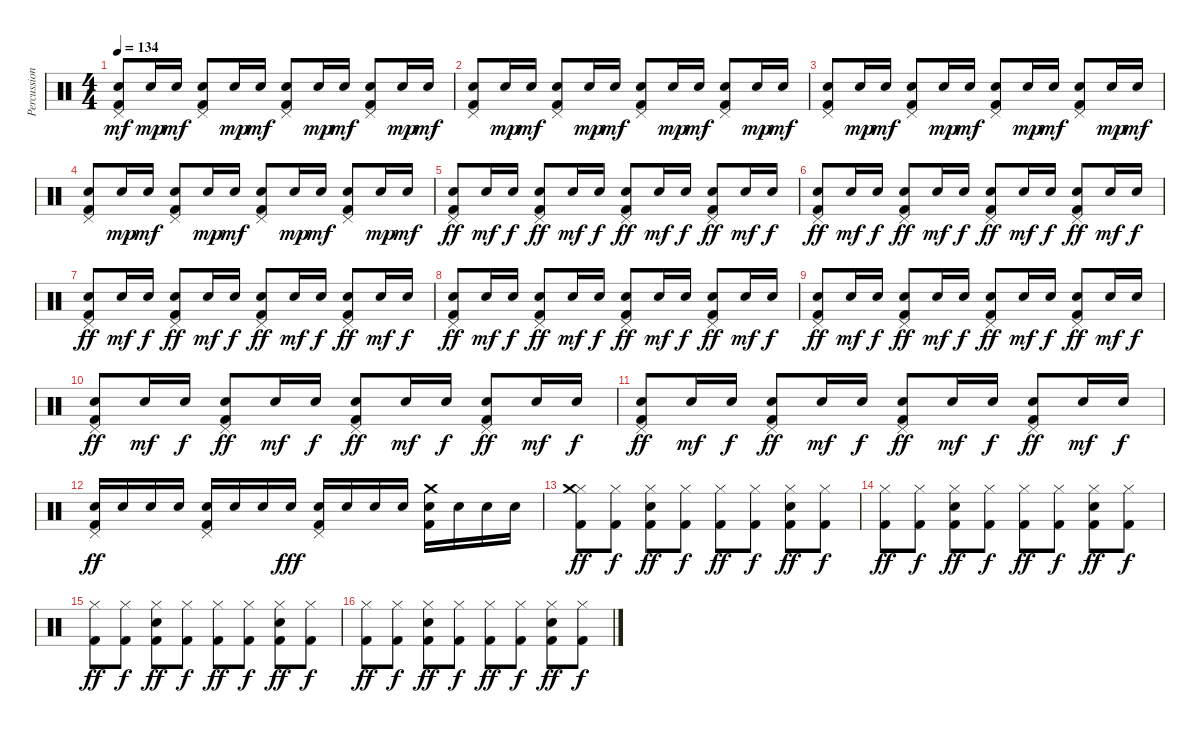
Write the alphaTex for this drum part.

\track ("Percussion" "Percussion") {instrument percussion}
\staff {score}
\articulation defaults
\ts (4 4)
\tempo 134
\clef neutral
\ks c
("Kick (hit) 2" "Pedal Hi-Hat (hit)" "Electric Snare (hit)").8{dy mf} "Electric Snare (hit)".16{dy mp} "Electric Snare (hit)".16{dy mf} ("Kick (hit) 2" "Pedal Hi-Hat (hit)" "Electric Snare (hit)").8 "Electric Snare (hit)".16{dy mp} "Electric Snare (hit)".16{dy mf} ("Kick (hit) 2" "Pedal Hi-Hat (hit)" "Electric Snare (hit)").8 "Electric Snare (hit)".16{dy mp} "Electric Snare (hit)".16{dy mf} ("Kick (hit) 2" "Pedal Hi-Hat (hit)" "Electric Snare (hit)").8 "Electric Snare (hit)".16{dy mp} "Electric Snare (hit)".16{dy mf} |
("Kick (hit) 2" "Pedal Hi-Hat (hit)" "Electric Snare (hit)").8 "Electric Snare (hit)".16{dy mp} "Electric Snare (hit)".16{dy mf} ("Kick (hit) 2" "Pedal Hi-Hat (hit)" "Electric Snare (hit)").8 "Electric Snare (hit)".16{dy mp} "Electric Snare (hit)".16{dy mf} ("Kick (hit) 2" "Pedal Hi-Hat (hit)" "Electric Snare (hit)").8 "Electric Snare (hit)".16{dy mp} "Electric Snare (hit)".16{dy mf} ("Kick (hit) 2" "Pedal Hi-Hat (hit)" "Electric Snare (hit)").8 "Electric Snare (hit)".16{dy mp} "Electric Snare (hit)".16{dy mf} |
("Kick (hit) 2" "Pedal Hi-Hat (hit)" "Electric Snare (hit)").8 "Electric Snare (hit)".16{dy mp} "Electric Snare (hit)".16{dy mf} ("Kick (hit) 2" "Pedal Hi-Hat (hit)" "Electric Snare (hit)").8 "Electric Snare (hit)".16{dy mp} "Electric Snare (hit)".16{dy mf} ("Kick (hit) 2" "Pedal Hi-Hat (hit)" "Electric Snare (hit)").8 "Electric Snare (hit)".16{dy mp} "Electric Snare (hit)".16{dy mf} ("Kick (hit) 2" "Pedal Hi-Hat (hit)" "Electric Snare (hit)").8 "Electric Snare (hit)".16{dy mp} "Electric Snare (hit)".16{dy mf} |
("Kick (hit) 2" "Pedal Hi-Hat (hit)" "Electric Snare (hit)").8 "Electric Snare (hit)".16{dy mp} "Electric Snare (hit)".16{dy mf} ("Kick (hit) 2" "Pedal Hi-Hat (hit)" "Electric Snare (hit)").8 "Electric Snare (hit)".16{dy mp} "Electric Snare (hit)".16{dy mf} ("Kick (hit) 2" "Pedal Hi-Hat (hit)" "Electric Snare (hit)").8 "Electric Snare (hit)".16{dy mp} "Electric Snare (hit)".16{dy mf} ("Kick (hit) 2" "Pedal Hi-Hat (hit)" "Electric Snare (hit)").8 "Electric Snare (hit)".16{dy mp} "Electric Snare (hit)".16{dy mf} |
("Kick (hit) 2" "Pedal Hi-Hat (hit)" "Electric Snare (hit)").8{dy ff} "Electric Snare (hit)".16{dy mf} "Electric Snare (hit)".16{dy f} ("Kick (hit) 2" "Pedal Hi-Hat (hit)" "Electric Snare (hit)").8{dy ff} "Electric Snare (hit)".16{dy mf} "Electric Snare (hit)".16{dy f} ("Kick (hit) 2" "Pedal Hi-Hat (hit)" "Electric Snare (hit)").8{dy ff} "Electric Snare (hit)".16{dy mf} "Electric Snare (hit)".16{dy f} ("Kick (hit) 2" "Pedal Hi-Hat (hit)" "Electric Snare (hit)").8{dy ff} "Electric Snare (hit)".16{dy mf} "Electric Snare (hit)".16{dy f} |
("Kick (hit) 2" "Pedal Hi-Hat (hit)" "Electric Snare (hit)").8{dy ff} "Electric Snare (hit)".16{dy mf} "Electric Snare (hit)".16{dy f} ("Kick (hit) 2" "Pedal Hi-Hat (hit)" "Electric Snare (hit)").8{dy ff} "Electric Snare (hit)".16{dy mf} "Electric Snare (hit)".16{dy f} ("Kick (hit) 2" "Pedal Hi-Hat (hit)" "Electric Snare (hit)").8{dy ff} "Electric Snare (hit)".16{dy mf} "Electric Snare (hit)".16{dy f} ("Kick (hit) 2" "Pedal Hi-Hat (hit)" "Electric Snare (hit)").8{dy ff} "Electric Snare (hit)".16{dy mf} "Electric Snare (hit)".16{dy f} |
("Kick (hit) 2" "Pedal Hi-Hat (hit)" "Electric Snare (hit)").8{dy ff} "Electric Snare (hit)".16{dy mf} "Electric Snare (hit)".16{dy f} ("Kick (hit) 2" "Pedal Hi-Hat (hit)" "Electric Snare (hit)").8{dy ff} "Electric Snare (hit)".16{dy mf} "Electric Snare (hit)".16{dy f} ("Kick (hit) 2" "Pedal Hi-Hat (hit)" "Electric Snare (hit)").8{dy ff} "Electric Snare (hit)".16{dy mf} "Electric Snare (hit)".16{dy f} ("Kick (hit) 2" "Pedal Hi-Hat (hit)" "Electric Snare (hit)").8{dy ff} "Electric Snare (hit)".16{dy mf} "Electric Snare (hit)".16{dy f} |
("Kick (hit) 2" "Pedal Hi-Hat (hit)" "Electric Snare (hit)").8{dy ff} "Electric Snare (hit)".16{dy mf} "Electric Snare (hit)".16{dy f} ("Kick (hit) 2" "Pedal Hi-Hat (hit)" "Electric Snare (hit)").8{dy ff} "Electric Snare (hit)".16{dy mf} "Electric Snare (hit)".16{dy f} ("Kick (hit) 2" "Pedal Hi-Hat (hit)" "Electric Snare (hit)").8{dy ff} "Electric Snare (hit)".16{dy mf} "Electric Snare (hit)".16{dy f} ("Kick (hit) 2" "Pedal Hi-Hat (hit)" "Electric Snare (hit)").8{dy ff} "Electric Snare (hit)".16{dy mf} "Electric Snare (hit)".16{dy f} |
("Kick (hit) 2" "Pedal Hi-Hat (hit)" "Electric Snare (hit)").8{dy ff} "Electric Snare (hit)".16{dy mf} "Electric Snare (hit)".16{dy f} ("Kick (hit) 2" "Pedal Hi-Hat (hit)" "Electric Snare (hit)").8{dy ff} "Electric Snare (hit)".16{dy mf} "Electric Snare (hit)".16{dy f} ("Kick (hit) 2" "Pedal Hi-Hat (hit)" "Electric Snare (hit)").8{dy ff} "Electric Snare (hit)".16{dy mf} "Electric Snare (hit)".16{dy f} ("Kick (hit) 2" "Pedal Hi-Hat (hit)" "Electric Snare (hit)").8{dy ff} "Electric Snare (hit)".16{dy mf} "Electric Snare (hit)".16{dy f} |
("Kick (hit) 2" "Pedal Hi-Hat (hit)" "Electric Snare (hit)").8{dy ff} "Electric Snare (hit)".16{dy mf} "Electric Snare (hit)".16{dy f} ("Kick (hit) 2" "Pedal Hi-Hat (hit)" "Electric Snare (hit)").8{dy ff} "Electric Snare (hit)".16{dy mf} "Electric Snare (hit)".16{dy f} ("Kick (hit) 2" "Pedal Hi-Hat (hit)" "Electric Snare (hit)").8{dy ff} "Electric Snare (hit)".16{dy mf} "Electric Snare (hit)".16{dy f} ("Kick (hit) 2" "Pedal Hi-Hat (hit)" "Electric Snare (hit)").8{dy ff} "Electric Snare (hit)".16{dy mf} "Electric Snare (hit)".16{dy f} |
("Kick (hit) 2" "Pedal Hi-Hat (hit)" "Electric Snare (hit)").8{dy ff} "Electric Snare (hit)".16{dy mf} "Electric Snare (hit)".16{dy f} ("Kick (hit) 2" "Pedal Hi-Hat (hit)" "Electric Snare (hit)").8{dy ff} "Electric Snare (hit)".16{dy mf} "Electric Snare (hit)".16{dy f} ("Kick (hit) 2" "Pedal Hi-Hat (hit)" "Electric Snare (hit)").8{dy ff} "Electric Snare (hit)".16{dy mf} "Electric Snare (hit)".16{dy f} ("Kick (hit) 2" "Pedal Hi-Hat (hit)" "Electric Snare (hit)").8{dy ff} "Electric Snare (hit)".16{dy mf} "Electric Snare (hit)".16{dy f} |
("Kick (hit) 2" "Pedal Hi-Hat (hit)" "Electric Snare (hit)").16{dy ff} "Electric Snare (hit)".16 "Electric Snare (hit)".16 "Electric Snare (hit)".16 ("Kick (hit) 2" "Pedal Hi-Hat (hit)" "Electric Snare (hit)").16 "Electric Snare (hit)".16 "Electric Snare (hit)".16 "Electric Snare (hit)".16{dy fff} ("Kick (hit) 2" "Pedal Hi-Hat (hit)" "Electric Snare (hit)").16 "Electric Snare (hit)".16 "Electric Snare (hit)".16 "Electric Snare (hit)".16 ("Kick (hit) 2" "Crash medium (hit)" "Electric Snare (hit)").16 "Electric Snare (hit)".16 "Electric Snare (hit)".16 "Electric Snare (hit)".16 |
("Kick (hit) 2" "Hi-Hat (closed)" "Crash medium (hit)").8{dy ff} ("Kick (hit) 2" "Hi-Hat (closed)").8{dy f} ("Kick (hit) 2" "Hi-Hat (closed)" "Electric Snare (hit)").8{dy ff} ("Kick (hit) 2" "Hi-Hat (closed)").8{dy f} ("Kick (hit) 2" "Hi-Hat (closed)").8{dy ff} ("Kick (hit) 2" "Hi-Hat (closed)").8{dy f} ("Kick (hit) 2" "Hi-Hat (closed)" "Electric Snare (hit)").8{dy ff} ("Kick (hit) 2" "Hi-Hat (closed)").8{dy f} |
("Kick (hit) 2" "Hi-Hat (closed)").8{dy ff} ("Kick (hit) 2" "Hi-Hat (closed)").8{dy f} ("Kick (hit) 2" "Hi-Hat (closed)" "Electric Snare (hit)").8{dy ff} ("Kick (hit) 2" "Hi-Hat (closed)").8{dy f} ("Kick (hit) 2" "Hi-Hat (closed)").8{dy ff} ("Kick (hit) 2" "Hi-Hat (closed)").8{dy f} ("Kick (hit) 2" "Hi-Hat (closed)" "Electric Snare (hit)").8{dy ff} ("Kick (hit) 2" "Hi-Hat (closed)").8{dy f} |
("Kick (hit) 2" "Hi-Hat (closed)").8{dy ff} ("Kick (hit) 2" "Hi-Hat (closed)").8{dy f} ("Kick (hit) 2" "Hi-Hat (closed)" "Electric Snare (hit)").8{dy ff} ("Kick (hit) 2" "Hi-Hat (closed)").8{dy f} ("Kick (hit) 2" "Hi-Hat (closed)").8{dy ff} ("Kick (hit) 2" "Hi-Hat (closed)").8{dy f} ("Kick (hit) 2" "Hi-Hat (closed)" "Electric Snare (hit)").8{dy ff} ("Kick (hit) 2" "Hi-Hat (closed)").8{dy f} |
("Kick (hit) 2" "Hi-Hat (closed)").8{dy ff} ("Kick (hit) 2" "Hi-Hat (closed)").8{dy f} ("Kick (hit) 2" "Hi-Hat (closed)" "Electric Snare (hit)").8{dy ff} ("Kick (hit) 2" "Hi-Hat (closed)").8{dy f} ("Kick (hit) 2" "Hi-Hat (closed)").8{dy ff} ("Kick (hit) 2" "Hi-Hat (closed)").8{dy f} ("Kick (hit) 2" "Hi-Hat (closed)" "Electric Snare (hit)").8{dy ff} ("Kick (hit) 2" "Hi-Hat (closed)").8{dy f}
